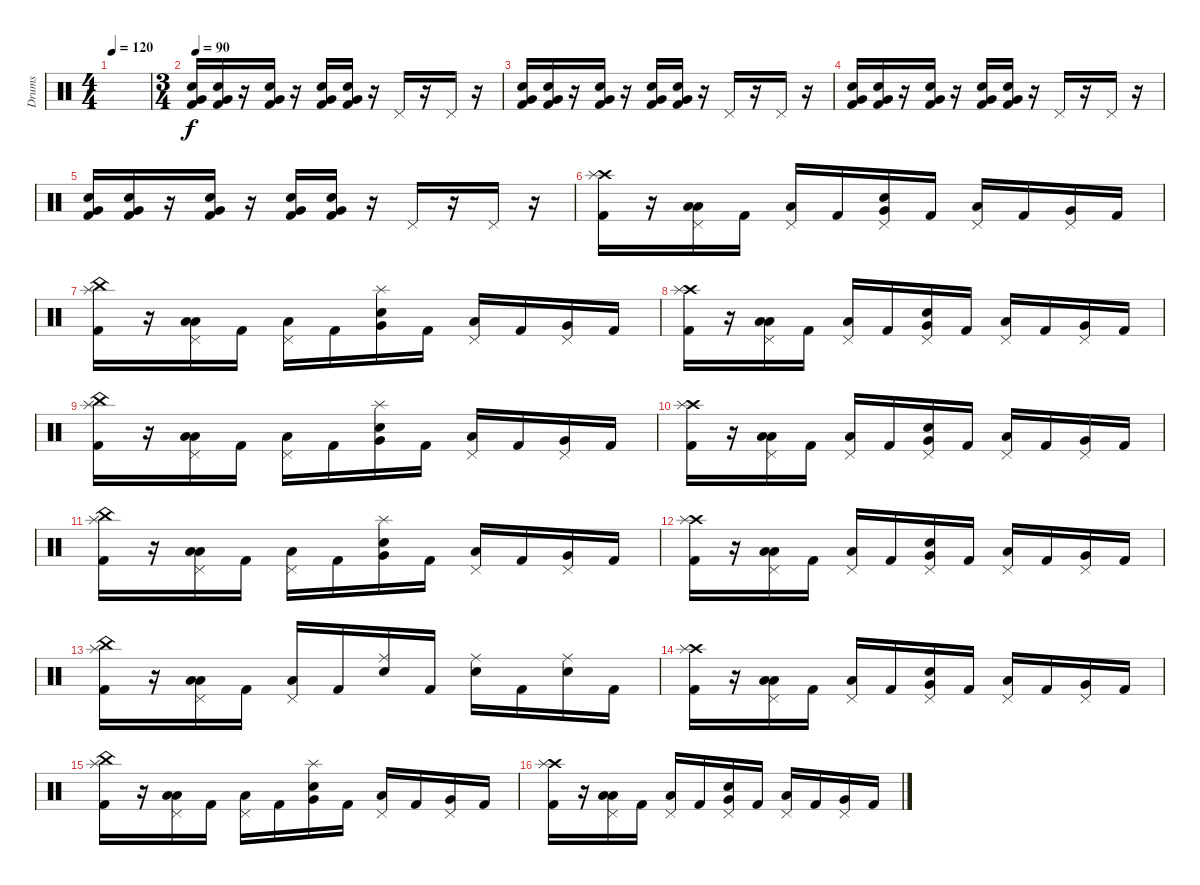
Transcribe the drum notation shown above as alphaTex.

\track ("Drums" "Drums") {instrument percussion}
\staff {score}
\articulation defaults
\ts (4 4)
\tempo 120
\clef neutral
\ks c
|
\ts (3 4)
\tempo 90
("Kick (hit) 2" "Electric Snare (hit)" "Very Low Tom (hit)").16 ("Kick (hit) 2" "Electric Snare (hit)" "Very Low Tom (hit)").16 r.16 ("Kick (hit) 2" "Electric Snare (hit)" "Very Low Tom (hit)").16 r.16 ("Kick (hit) 2" "Electric Snare (hit)" "Very Low Tom (hit)").16 ("Kick (hit) 2" "Electric Snare (hit)" "Very Low Tom (hit)").16 r.16 "Pedal Hi-Hat (hit)".16 r.16 "Pedal Hi-Hat (hit)".16 r.16 |
("Kick (hit) 2" "Electric Snare (hit)" "Very Low Tom (hit)").16 ("Kick (hit) 2" "Electric Snare (hit)" "Very Low Tom (hit)").16 r.16 ("Kick (hit) 2" "Electric Snare (hit)" "Very Low Tom (hit)").16 r.16 ("Kick (hit) 2" "Electric Snare (hit)" "Very Low Tom (hit)").16 ("Kick (hit) 2" "Electric Snare (hit)" "Very Low Tom (hit)").16 r.16 "Pedal Hi-Hat (hit)".16 r.16 "Pedal Hi-Hat (hit)".16 r.16 |
("Kick (hit) 2" "Electric Snare (hit)" "Very Low Tom (hit)").16 ("Kick (hit) 2" "Electric Snare (hit)" "Very Low Tom (hit)").16 r.16 ("Kick (hit) 2" "Electric Snare (hit)" "Very Low Tom (hit)").16 r.16 ("Kick (hit) 2" "Electric Snare (hit)" "Very Low Tom (hit)").16 ("Kick (hit) 2" "Electric Snare (hit)" "Very Low Tom (hit)").16 r.16 "Pedal Hi-Hat (hit)".16 r.16 "Pedal Hi-Hat (hit)".16 r.16 |
("Kick (hit) 2" "Electric Snare (hit)" "Very Low Tom (hit)").16 ("Kick (hit) 2" "Electric Snare (hit)" "Very Low Tom (hit)").16 r.16 ("Kick (hit) 2" "Electric Snare (hit)" "Very Low Tom (hit)").16 r.16 ("Kick (hit) 2" "Electric Snare (hit)" "Very Low Tom (hit)").16 ("Kick (hit) 2" "Electric Snare (hit)" "Very Low Tom (hit)").16 r.16 "Pedal Hi-Hat (hit)".16 r.16 "Pedal Hi-Hat (hit)".16 r.16 |
("Crash high (hit)" "Splash (hit)" "Kick (hit) 2").16 r.16 ("Pedal Hi-Hat (hit)" "Low Floor Tom (hit)" "Low Tom (hit)").16 "Kick (hit) 2".16 ("Pedal Hi-Hat (hit)" "Low Floor Tom (hit)").16 "Kick (hit) 2".16 ("Pedal Hi-Hat (hit)" "Electric Snare (hit)" "Very Low Tom (hit)").16 "Kick (hit) 2".16 ("Pedal Hi-Hat (hit)" "Low Floor Tom (hit)").16 "Kick (hit) 2".16 ("Pedal Hi-Hat (hit)" "Very Low Tom (hit)").16 "Kick (hit) 2".16 |
("China (hit)" "Splash (hit)" "Kick (hit) 2").16 r.16 ("Pedal Hi-Hat (hit)" "Low Floor Tom (hit)" "Low Tom (hit)").16 "Kick (hit) 2".16 ("Pedal Hi-Hat (hit)" "Low Floor Tom (hit)").16 "Kick (hit) 2".16 ("Splash (hit)" "Electric Snare (hit)" "Very Low Tom (hit)").16 "Kick (hit) 2".16 ("Pedal Hi-Hat (hit)" "Low Floor Tom (hit)").16 "Kick (hit) 2".16 ("Pedal Hi-Hat (hit)" "Very Low Tom (hit)").16 "Kick (hit) 2".16 |
("Crash high (hit)" "Splash (hit)" "Kick (hit) 2").16 r.16 ("Pedal Hi-Hat (hit)" "Low Floor Tom (hit)" "Low Tom (hit)").16 "Kick (hit) 2".16 ("Pedal Hi-Hat (hit)" "Low Floor Tom (hit)").16 "Kick (hit) 2".16 ("Pedal Hi-Hat (hit)" "Electric Snare (hit)" "Very Low Tom (hit)").16 "Kick (hit) 2".16 ("Pedal Hi-Hat (hit)" "Low Floor Tom (hit)").16 "Kick (hit) 2".16 ("Pedal Hi-Hat (hit)" "Very Low Tom (hit)").16 "Kick (hit) 2".16 |
("China (hit)" "Splash (hit)" "Kick (hit) 2").16 r.16 ("Pedal Hi-Hat (hit)" "Low Floor Tom (hit)" "Low Tom (hit)").16 "Kick (hit) 2".16 ("Pedal Hi-Hat (hit)" "Low Floor Tom (hit)").16 "Kick (hit) 2".16 ("Splash (hit)" "Electric Snare (hit)" "Very Low Tom (hit)").16 "Kick (hit) 2".16 ("Pedal Hi-Hat (hit)" "Low Floor Tom (hit)").16 "Kick (hit) 2".16 ("Pedal Hi-Hat (hit)" "Very Low Tom (hit)").16 "Kick (hit) 2".16 |
("Crash high (hit)" "Splash (hit)" "Kick (hit) 2").16 r.16 ("Pedal Hi-Hat (hit)" "Low Floor Tom (hit)" "Low Tom (hit)").16 "Kick (hit) 2".16 ("Pedal Hi-Hat (hit)" "Low Floor Tom (hit)").16 "Kick (hit) 2".16 ("Pedal Hi-Hat (hit)" "Electric Snare (hit)" "Very Low Tom (hit)").16 "Kick (hit) 2".16 ("Pedal Hi-Hat (hit)" "Low Floor Tom (hit)").16 "Kick (hit) 2".16 ("Pedal Hi-Hat (hit)" "Very Low Tom (hit)").16 "Kick (hit) 2".16 |
("China (hit)" "Splash (hit)" "Kick (hit) 2").16 r.16 ("Pedal Hi-Hat (hit)" "Low Floor Tom (hit)" "Low Tom (hit)").16 "Kick (hit) 2".16 ("Pedal Hi-Hat (hit)" "Low Floor Tom (hit)").16 "Kick (hit) 2".16 ("Splash (hit)" "Electric Snare (hit)" "Very Low Tom (hit)").16 "Kick (hit) 2".16 ("Pedal Hi-Hat (hit)" "Low Floor Tom (hit)").16 "Kick (hit) 2".16 ("Pedal Hi-Hat (hit)" "Very Low Tom (hit)").16 "Kick (hit) 2".16 |
("Crash high (hit)" "Splash (hit)" "Kick (hit) 2").16 r.16 ("Pedal Hi-Hat (hit)" "Low Floor Tom (hit)" "Low Tom (hit)").16 "Kick (hit) 2".16 ("Pedal Hi-Hat (hit)" "Low Floor Tom (hit)").16 "Kick (hit) 2".16 ("Pedal Hi-Hat (hit)" "Electric Snare (hit)" "Very Low Tom (hit)").16 "Kick (hit) 2".16 ("Pedal Hi-Hat (hit)" "Low Floor Tom (hit)").16 "Kick (hit) 2".16 ("Pedal Hi-Hat (hit)" "Very Low Tom (hit)").16 "Kick (hit) 2".16 |
("China (hit)" "Splash (hit)" "Kick (hit) 2").16 r.16 ("Pedal Hi-Hat (hit)" "Low Floor Tom (hit)" "Low Tom (hit)").16 "Kick (hit) 2".16 ("Pedal Hi-Hat (hit)" "Low Floor Tom (hit)").16 "Kick (hit) 2".16 ("Ride (middle)" "Electric Snare (hit)").16 "Kick (hit) 2".16 ("Ride (middle)" "Electric Snare (hit)").16 "Kick (hit) 2".16 ("Ride (middle)" "Electric Snare (hit)").16 "Kick (hit) 2".16 |
("Crash high (hit)" "Splash (hit)" "Kick (hit) 2").16 r.16 ("Pedal Hi-Hat (hit)" "Low Floor Tom (hit)" "Low Tom (hit)").16 "Kick (hit) 2".16 ("Pedal Hi-Hat (hit)" "Low Floor Tom (hit)").16 "Kick (hit) 2".16 ("Pedal Hi-Hat (hit)" "Electric Snare (hit)" "Very Low Tom (hit)").16 "Kick (hit) 2".16 ("Pedal Hi-Hat (hit)" "Low Floor Tom (hit)").16 "Kick (hit) 2".16 ("Pedal Hi-Hat (hit)" "Very Low Tom (hit)").16 "Kick (hit) 2".16 |
("China (hit)" "Splash (hit)" "Kick (hit) 2").16 r.16 ("Pedal Hi-Hat (hit)" "Low Floor Tom (hit)" "Low Tom (hit)").16 "Kick (hit) 2".16 ("Pedal Hi-Hat (hit)" "Low Floor Tom (hit)").16 "Kick (hit) 2".16 ("Splash (hit)" "Electric Snare (hit)" "Very Low Tom (hit)").16 "Kick (hit) 2".16 ("Pedal Hi-Hat (hit)" "Low Floor Tom (hit)").16 "Kick (hit) 2".16 ("Pedal Hi-Hat (hit)" "Very Low Tom (hit)").16 "Kick (hit) 2".16 |
("Crash high (hit)" "Splash (hit)" "Kick (hit) 2").16 r.16 ("Pedal Hi-Hat (hit)" "Low Floor Tom (hit)" "Low Tom (hit)").16 "Kick (hit) 2".16 ("Pedal Hi-Hat (hit)" "Low Floor Tom (hit)").16 "Kick (hit) 2".16 ("Pedal Hi-Hat (hit)" "Electric Snare (hit)" "Very Low Tom (hit)").16 "Kick (hit) 2".16 ("Pedal Hi-Hat (hit)" "Low Floor Tom (hit)").16 "Kick (hit) 2".16 ("Pedal Hi-Hat (hit)" "Very Low Tom (hit)").16 "Kick (hit) 2".16
